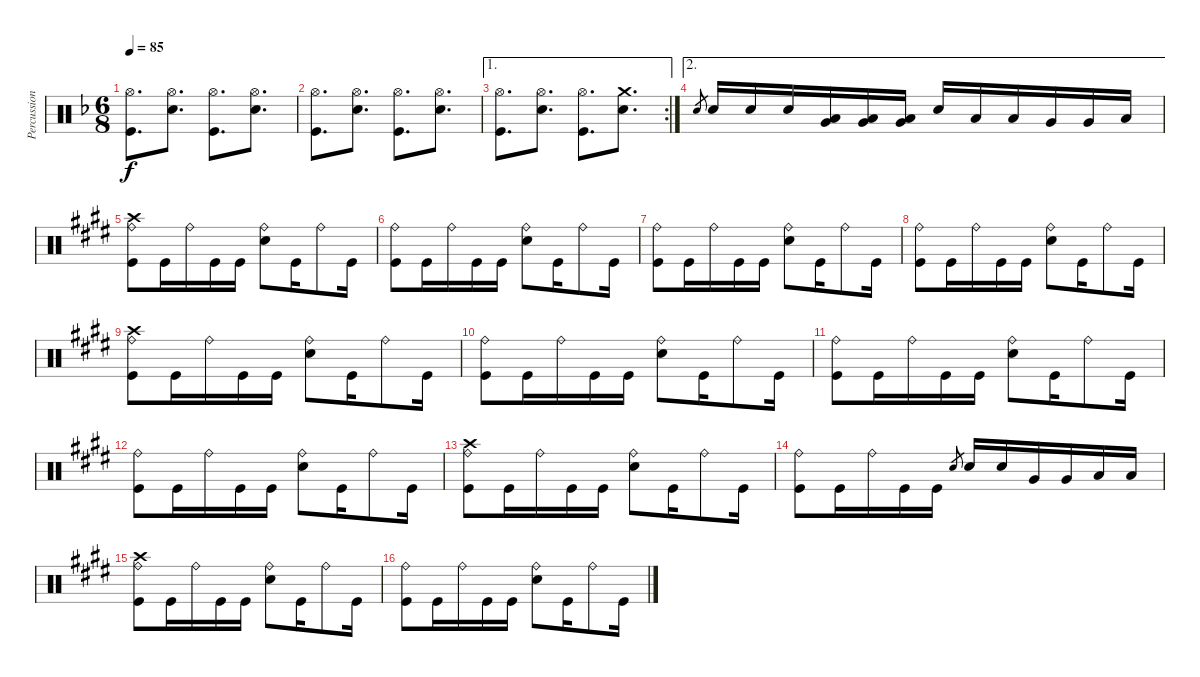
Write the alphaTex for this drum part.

\track ("Percussion" "Percussion") {instrument percussion}
\staff {score}
\articulation defaults
\ts (6 8)
\tempo 85
\clef neutral
\ks f
("Hi-Hat (open)" "Kick (hit)").8{d dy f} ("Hi-Hat (open)" "Snare (hit) 2").8{d} ("Hi-Hat (open)" "Kick (hit)").8{d} ("Hi-Hat (open)" "Snare (hit) 2").8{d} |
("Hi-Hat (open)" "Kick (hit)").8{d} ("Hi-Hat (open)" "Snare (hit) 2").8{d} ("Hi-Hat (open)" "Kick (hit)").8{d} ("Hi-Hat (open)" "Snare (hit) 2").8{d} |
\ae 1
\rc 2
("Hi-Hat (open)" "Kick (hit)").8{d} ("Hi-Hat (open)" "Snare (hit) 2").8{d} ("Hi-Hat (open)" "Kick (hit)").8{d} ("Crash medium (hit)" "Snare (hit) 2").8{d} |
\ae 2 "Snare (hit) 2".8{gr} "Snare (hit) 2".16 "Snare (hit) 2".16 "Snare (hit) 2".16
("Very Low Tom (hit)" "Low Tom (hit)").16 ("Low Tom (hit)" "Very Low Tom (hit)").16 ("Very Low Tom (hit)" "Low Floor Tom (hit)").16 "Snare (hit) 2".16 "Low Tom (hit)".16 "Low Tom (hit)".16 "Very Low Tom (hit)".16 "Very Low Tom (hit)".16 "Low Floor Tom (hit)".16 |
\ks e
("Kick (hit)" "Ride (bell)" "Crash high (hit)").8 "Kick (hit)".16 "Ride (bell)".16 "Kick (hit)".16 "Kick (hit)".16 ("Ride (bell)" "Snare (hit) 2").8 "Kick (hit)".16 "Ride (bell)".8 "Kick (hit)".16 |
\ks c#minor
("Kick (hit)" "Ride (bell)").8 "Kick (hit)".16 "Ride (bell)".16 "Kick (hit)".16 "Kick (hit)".16 ("Ride (bell)" "Snare (hit) 2").8 "Kick (hit)".16 "Ride (bell)".8 "Kick (hit)".16 |
("Kick (hit)" "Ride (bell)").8 "Kick (hit)".16 "Ride (bell)".16 "Kick (hit)".16 "Kick (hit)".16 ("Ride (bell)" "Snare (hit) 2").8 "Kick (hit)".16 "Ride (bell)".8 "Kick (hit)".16 |
\ks e
("Kick (hit)" "Ride (bell)").8 "Kick (hit)".16 "Ride (bell)".16 "Kick (hit)".16 "Kick (hit)".16 ("Ride (bell)" "Snare (hit) 2").8 "Kick (hit)".16 "Ride (bell)".8 "Kick (hit)".16 |
("Kick (hit)" "Ride (bell)" "Crash high (hit)").8 "Kick (hit)".16 "Ride (bell)".16 "Kick (hit)".16 "Kick (hit)".16 ("Ride (bell)" "Snare (hit) 2").8 "Kick (hit)".16 "Ride (bell)".8 "Kick (hit)".16 |
\ks c#minor
("Kick (hit)" "Ride (bell)").8 "Kick (hit)".16 "Ride (bell)".16 "Kick (hit)".16 "Kick (hit)".16 ("Ride (bell)" "Snare (hit) 2").8 "Kick (hit)".16 "Ride (bell)".8 "Kick (hit)".16 |
("Kick (hit)" "Ride (bell)").8 "Kick (hit)".16 "Ride (bell)".16 "Kick (hit)".16 "Kick (hit)".16 ("Ride (bell)" "Snare (hit) 2").8 "Kick (hit)".16 "Ride (bell)".8 "Kick (hit)".16 |
\ks e
("Kick (hit)" "Ride (bell)").8 "Kick (hit)".16 "Ride (bell)".16 "Kick (hit)".16 "Kick (hit)".16 ("Ride (bell)" "Snare (hit) 2").8 "Kick (hit)".16 "Ride (bell)".8 "Kick (hit)".16 |
\ks c#minor
("Kick (hit)" "Ride (bell)" "Crash high (hit)").8 "Kick (hit)".16 "Ride (bell)".16 "Kick (hit)".16 "Kick (hit)".16 ("Ride (bell)" "Snare (hit) 2").8 "Kick (hit)".16 "Ride (bell)".8 "Kick (hit)".16 |
("Kick (hit)" "Ride (bell)").8 "Kick (hit)".16 "Ride (bell)".16 "Kick (hit)".16 "Kick (hit)".16 "Snare (hit) 2".8{gr} "Snare (hit) 2".16 "Snare (hit) 2".16 "Very Low Tom (hit)".16 "Very Low Tom (hit)".16 "Low Floor Tom (hit)".16 "Low Floor Tom (hit)".16 |
\ks e
("Kick (hit)" "Ride (bell)" "Crash high (hit)").8 "Kick (hit)".16 "Ride (bell)".16 "Kick (hit)".16 "Kick (hit)".16 ("Ride (bell)" "Snare (hit) 2").8 "Kick (hit)".16 "Ride (bell)".8 "Kick (hit)".16 |
\ks c#minor
("Kick (hit)" "Ride (bell)").8 "Kick (hit)".16 "Ride (bell)".16 "Kick (hit)".16 "Kick (hit)".16 ("Ride (bell)" "Snare (hit) 2").8 "Kick (hit)".16 "Ride (bell)".8 "Kick (hit)".16
